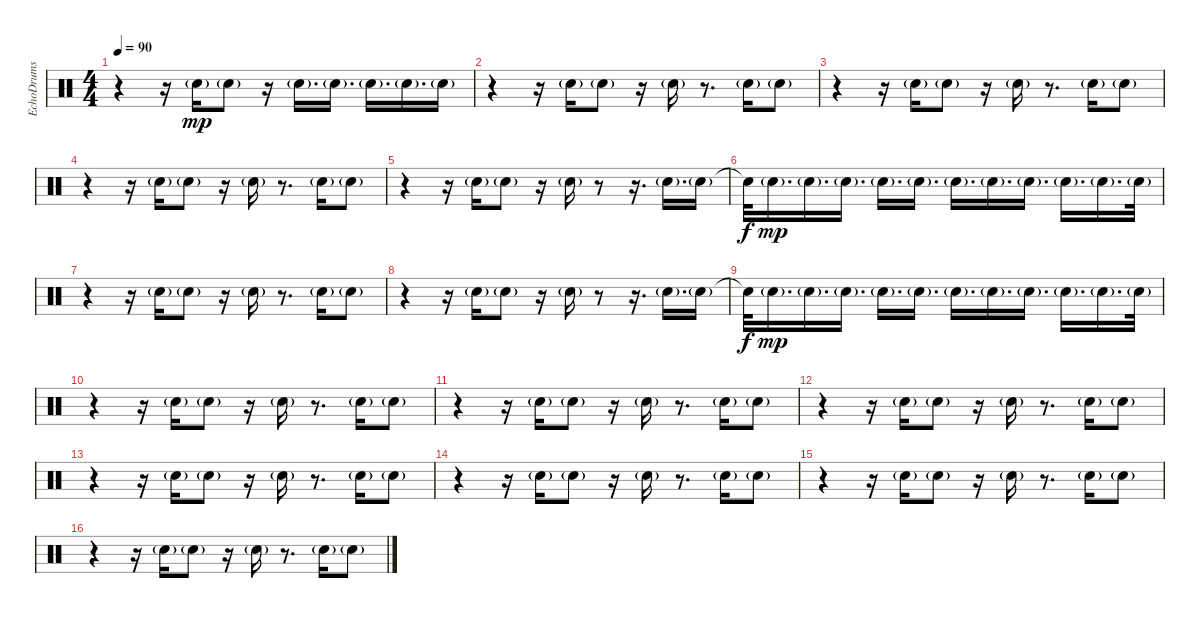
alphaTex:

\track ("EchoDrums" "EchoDrums") {instrument percussion}
\staff {score}
\articulation defaults
\ts (4 4)
\tempo 90
\clef neutral
\ks c
r.4{dy mp} r.16 "Electric Snare (hit)"{g}.16 "Electric Snare (hit)"{g}.8 r.16 "Electric Snare (hit)"{g}.16{d} "Electric Snare (hit)"{g}.16{d} "Electric Snare (hit)"{g}.16{d} "Electric Snare (hit)"{g}.16{d} "Electric Snare (hit)"{g}.16 |
r.4 r.16 "Electric Snare (hit)"{g}.16 "Electric Snare (hit)"{g}.8 r.16 "Electric Snare (hit)"{g}.16 r.8{d} "Electric Snare (hit)"{g}.16 "Electric Snare (hit)"{g}.8 |
r.4 r.16 "Electric Snare (hit)"{g}.16 "Electric Snare (hit)"{g}.8 r.16 "Electric Snare (hit)"{g}.16 r.8{d} "Electric Snare (hit)"{g}.16 "Electric Snare (hit)"{g}.8 |
r.4 r.16 "Electric Snare (hit)"{g}.16 "Electric Snare (hit)"{g}.8 r.16 "Electric Snare (hit)"{g}.16 r.8{d} "Electric Snare (hit)"{g}.16 "Electric Snare (hit)"{g}.8 |
r.4 r.16 "Electric Snare (hit)"{g}.16 "Electric Snare (hit)"{g}.8 r.16 "Electric Snare (hit)"{g}.16 r.8 r.16{d} "Electric Snare (hit)"{g}.16{d} "Electric Snare (hit)"{g}.16 |
"Snare (hit)"{t}.32{dy f} "Electric Snare (hit)"{g}.16{d dy mp} "Electric Snare (hit)"{g}.16{d} "Electric Snare (hit)"{g}.16{d} "Electric Snare (hit)"{g}.16{d} "Electric Snare (hit)"{g}.16{d} "Electric Snare (hit)"{g}.16{d} "Electric Snare (hit)"{g}.16{d} "Electric Snare (hit)"{g}.16{d} "Electric Snare (hit)"{g}.16{d} "Electric Snare (hit)"{g}.16{d} "Electric Snare (hit)"{g}.32 |
r.4 r.16 "Electric Snare (hit)"{g}.16 "Electric Snare (hit)"{g}.8 r.16 "Electric Snare (hit)"{g}.16 r.8{d} "Electric Snare (hit)"{g}.16 "Electric Snare (hit)"{g}.8 |
r.4 r.16 "Electric Snare (hit)"{g}.16 "Electric Snare (hit)"{g}.8 r.16 "Electric Snare (hit)"{g}.16 r.8 r.16{d} "Electric Snare (hit)"{g}.16{d} "Electric Snare (hit)"{g}.16 |
"Snare (hit)"{t}.32{dy f} "Electric Snare (hit)"{g}.16{d dy mp} "Electric Snare (hit)"{g}.16{d} "Electric Snare (hit)"{g}.16{d} "Electric Snare (hit)"{g}.16{d} "Electric Snare (hit)"{g}.16{d} "Electric Snare (hit)"{g}.16{d} "Electric Snare (hit)"{g}.16{d} "Electric Snare (hit)"{g}.16{d} "Electric Snare (hit)"{g}.16{d} "Electric Snare (hit)"{g}.16{d} "Electric Snare (hit)"{g}.32 |
r.4 r.16 "Electric Snare (hit)"{g}.16 "Electric Snare (hit)"{g}.8 r.16 "Electric Snare (hit)"{g}.16 r.8{d} "Electric Snare (hit)"{g}.16 "Electric Snare (hit)"{g}.8 |
r.4 r.16 "Electric Snare (hit)"{g}.16 "Electric Snare (hit)"{g}.8 r.16 "Electric Snare (hit)"{g}.16 r.8{d} "Electric Snare (hit)"{g}.16 "Electric Snare (hit)"{g}.8 |
r.4 r.16 "Electric Snare (hit)"{g}.16 "Electric Snare (hit)"{g}.8 r.16 "Electric Snare (hit)"{g}.16 r.8{d} "Electric Snare (hit)"{g}.16 "Electric Snare (hit)"{g}.8 |
r.4 r.16 "Electric Snare (hit)"{g}.16 "Electric Snare (hit)"{g}.8 r.16 "Electric Snare (hit)"{g}.16 r.8{d} "Electric Snare (hit)"{g}.16 "Electric Snare (hit)"{g}.8 |
r.4 r.16 "Electric Snare (hit)"{g}.16 "Electric Snare (hit)"{g}.8 r.16 "Electric Snare (hit)"{g}.16 r.8{d} "Electric Snare (hit)"{g}.16 "Electric Snare (hit)"{g}.8 |
r.4 r.16 "Electric Snare (hit)"{g}.16 "Electric Snare (hit)"{g}.8 r.16 "Electric Snare (hit)"{g}.16 r.8{d} "Electric Snare (hit)"{g}.16 "Electric Snare (hit)"{g}.8 |
r.4 r.16 "Electric Snare (hit)"{g}.16 "Electric Snare (hit)"{g}.8 r.16 "Electric Snare (hit)"{g}.16 r.8{d} "Electric Snare (hit)"{g}.16 "Electric Snare (hit)"{g}.8
